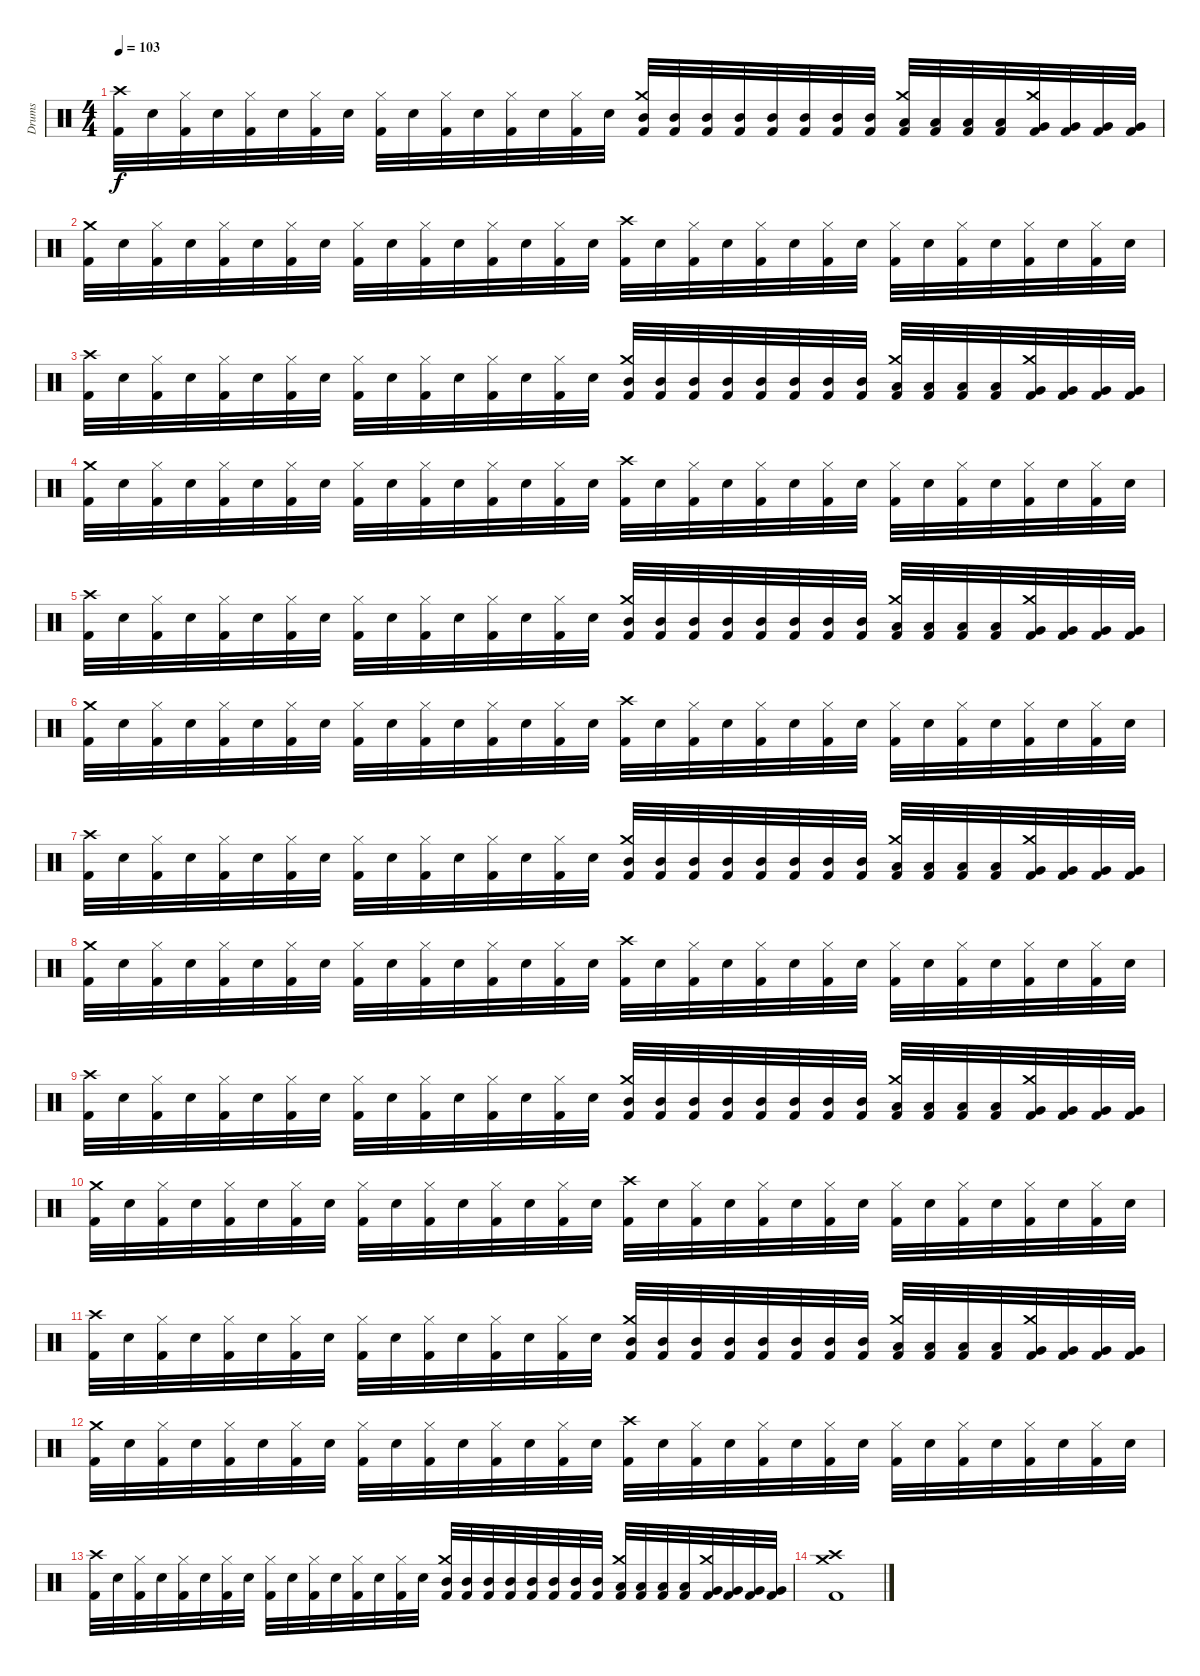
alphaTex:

\track ("Drums" "Drums") {instrument percussion}
\staff {score}
\articulation defaults
\ts (4 4)
\tempo 103
\clef neutral
\ks c
("Crash high (hit)" "Kick (hit) 2").32{dy f} "Electric Snare (hit)".32 ("Hi-Hat (closed)" "Kick (hit) 2").32 "Electric Snare (hit)".32 ("Hi-Hat (closed)" "Kick (hit) 2").32 "Electric Snare (hit)".32 ("Hi-Hat (closed)" "Kick (hit) 2").32 "Electric Snare (hit)".32 ("Hi-Hat (closed)" "Kick (hit) 2").32 "Electric Snare (hit)".32 ("Hi-Hat (closed)" "Kick (hit) 2").32 "Electric Snare (hit)".32 ("Hi-Hat (closed)" "Kick (hit) 2").32 "Electric Snare (hit)".32 ("Hi-Hat (closed)" "Kick (hit) 2").32 "Electric Snare (hit)".32 ("Crash medium (hit)" "Mid Tom (hit)" "Kick (hit) 2").32 ("Mid Tom (hit)" "Kick (hit) 2").32 ("Mid Tom (hit)" "Kick (hit) 2").32 ("Mid Tom (hit)" "Kick (hit) 2").32 ("Mid Tom (hit)" "Kick (hit) 2").32 ("Mid Tom (hit)" "Kick (hit) 2").32 ("Mid Tom (hit)" "Kick (hit) 2").32 ("Mid Tom (hit)" "Kick (hit) 2").32 ("Crash medium (hit)" "Low Tom (hit)" "Kick (hit) 2").32 ("Low Tom (hit)" "Kick (hit) 2").32 ("Low Tom (hit)" "Kick (hit) 2").32 ("Low Tom (hit)" "Kick (hit) 2").32 ("Crash medium (hit)" "Very Low Tom (hit)" "Kick (hit) 2").32 ("Very Low Tom (hit)" "Kick (hit) 2").32 ("Very Low Tom (hit)" "Kick (hit) 2").32 ("Very Low Tom (hit)" "Kick (hit) 2").32 |
("Crash medium (hit)" "Kick (hit) 2").32 "Electric Snare (hit)".32 ("Hi-Hat (closed)" "Kick (hit) 2").32 "Electric Snare (hit)".32 ("Hi-Hat (closed)" "Kick (hit) 2").32 "Electric Snare (hit)".32 ("Hi-Hat (closed)" "Kick (hit) 2").32 "Electric Snare (hit)".32 ("Hi-Hat (closed)" "Kick (hit) 2").32 "Electric Snare (hit)".32 ("Hi-Hat (closed)" "Kick (hit) 2").32 "Electric Snare (hit)".32 ("Hi-Hat (closed)" "Kick (hit) 2").32 "Electric Snare (hit)".32 ("Hi-Hat (closed)" "Kick (hit) 2").32 "Electric Snare (hit)".32 ("Crash high (hit)" "Kick (hit) 2").32 "Electric Snare (hit)".32 ("Hi-Hat (closed)" "Kick (hit) 2").32 "Electric Snare (hit)".32 ("Hi-Hat (closed)" "Kick (hit) 2").32 "Electric Snare (hit)".32 ("Hi-Hat (closed)" "Kick (hit) 2").32 "Electric Snare (hit)".32 ("Hi-Hat (closed)" "Kick (hit) 2").32 "Electric Snare (hit)".32 ("Hi-Hat (closed)" "Kick (hit) 2").32 "Electric Snare (hit)".32 ("Hi-Hat (closed)" "Kick (hit) 2").32 "Electric Snare (hit)".32 ("Hi-Hat (closed)" "Kick (hit) 2").32 "Electric Snare (hit)".32 |
("Crash high (hit)" "Kick (hit) 2").32 "Electric Snare (hit)".32 ("Hi-Hat (closed)" "Kick (hit) 2").32 "Electric Snare (hit)".32 ("Hi-Hat (closed)" "Kick (hit) 2").32 "Electric Snare (hit)".32 ("Hi-Hat (closed)" "Kick (hit) 2").32 "Electric Snare (hit)".32 ("Hi-Hat (closed)" "Kick (hit) 2").32 "Electric Snare (hit)".32 ("Hi-Hat (closed)" "Kick (hit) 2").32 "Electric Snare (hit)".32 ("Hi-Hat (closed)" "Kick (hit) 2").32 "Electric Snare (hit)".32 ("Hi-Hat (closed)" "Kick (hit) 2").32 "Electric Snare (hit)".32 ("Crash medium (hit)" "Mid Tom (hit)" "Kick (hit) 2").32 ("Mid Tom (hit)" "Kick (hit) 2").32 ("Mid Tom (hit)" "Kick (hit) 2").32 ("Mid Tom (hit)" "Kick (hit) 2").32 ("Mid Tom (hit)" "Kick (hit) 2").32 ("Mid Tom (hit)" "Kick (hit) 2").32 ("Mid Tom (hit)" "Kick (hit) 2").32 ("Mid Tom (hit)" "Kick (hit) 2").32 ("Crash medium (hit)" "Low Tom (hit)" "Kick (hit) 2").32 ("Low Tom (hit)" "Kick (hit) 2").32 ("Low Tom (hit)" "Kick (hit) 2").32 ("Low Tom (hit)" "Kick (hit) 2").32 ("Crash medium (hit)" "Very Low Tom (hit)" "Kick (hit) 2").32 ("Very Low Tom (hit)" "Kick (hit) 2").32 ("Very Low Tom (hit)" "Kick (hit) 2").32 ("Very Low Tom (hit)" "Kick (hit) 2").32 |
("Crash medium (hit)" "Kick (hit) 2").32 "Electric Snare (hit)".32 ("Hi-Hat (closed)" "Kick (hit) 2").32 "Electric Snare (hit)".32 ("Hi-Hat (closed)" "Kick (hit) 2").32 "Electric Snare (hit)".32 ("Hi-Hat (closed)" "Kick (hit) 2").32 "Electric Snare (hit)".32 ("Hi-Hat (closed)" "Kick (hit) 2").32 "Electric Snare (hit)".32 ("Hi-Hat (closed)" "Kick (hit) 2").32 "Electric Snare (hit)".32 ("Hi-Hat (closed)" "Kick (hit) 2").32 "Electric Snare (hit)".32 ("Hi-Hat (closed)" "Kick (hit) 2").32 "Electric Snare (hit)".32 ("Crash high (hit)" "Kick (hit) 2").32 "Electric Snare (hit)".32 ("Hi-Hat (closed)" "Kick (hit) 2").32 "Electric Snare (hit)".32 ("Hi-Hat (closed)" "Kick (hit) 2").32 "Electric Snare (hit)".32 ("Hi-Hat (closed)" "Kick (hit) 2").32 "Electric Snare (hit)".32 ("Hi-Hat (closed)" "Kick (hit) 2").32 "Electric Snare (hit)".32 ("Hi-Hat (closed)" "Kick (hit) 2").32 "Electric Snare (hit)".32 ("Hi-Hat (closed)" "Kick (hit) 2").32 "Electric Snare (hit)".32 ("Hi-Hat (closed)" "Kick (hit) 2").32 "Electric Snare (hit)".32 |
("Crash high (hit)" "Kick (hit) 2").32 "Electric Snare (hit)".32 ("Hi-Hat (closed)" "Kick (hit) 2").32 "Electric Snare (hit)".32 ("Hi-Hat (closed)" "Kick (hit) 2").32 "Electric Snare (hit)".32 ("Hi-Hat (closed)" "Kick (hit) 2").32 "Electric Snare (hit)".32 ("Hi-Hat (closed)" "Kick (hit) 2").32 "Electric Snare (hit)".32 ("Hi-Hat (closed)" "Kick (hit) 2").32 "Electric Snare (hit)".32 ("Hi-Hat (closed)" "Kick (hit) 2").32 "Electric Snare (hit)".32 ("Hi-Hat (closed)" "Kick (hit) 2").32 "Electric Snare (hit)".32 ("Crash medium (hit)" "Mid Tom (hit)" "Kick (hit) 2").32 ("Mid Tom (hit)" "Kick (hit) 2").32 ("Mid Tom (hit)" "Kick (hit) 2").32 ("Mid Tom (hit)" "Kick (hit) 2").32 ("Mid Tom (hit)" "Kick (hit) 2").32 ("Mid Tom (hit)" "Kick (hit) 2").32 ("Mid Tom (hit)" "Kick (hit) 2").32 ("Mid Tom (hit)" "Kick (hit) 2").32 ("Crash medium (hit)" "Low Tom (hit)" "Kick (hit) 2").32 ("Low Tom (hit)" "Kick (hit) 2").32 ("Low Tom (hit)" "Kick (hit) 2").32 ("Low Tom (hit)" "Kick (hit) 2").32 ("Crash medium (hit)" "Very Low Tom (hit)" "Kick (hit) 2").32 ("Very Low Tom (hit)" "Kick (hit) 2").32 ("Very Low Tom (hit)" "Kick (hit) 2").32 ("Very Low Tom (hit)" "Kick (hit) 2").32 |
("Crash medium (hit)" "Kick (hit) 2").32 "Electric Snare (hit)".32 ("Hi-Hat (closed)" "Kick (hit) 2").32 "Electric Snare (hit)".32 ("Hi-Hat (closed)" "Kick (hit) 2").32 "Electric Snare (hit)".32 ("Hi-Hat (closed)" "Kick (hit) 2").32 "Electric Snare (hit)".32 ("Hi-Hat (closed)" "Kick (hit) 2").32 "Electric Snare (hit)".32 ("Hi-Hat (closed)" "Kick (hit) 2").32 "Electric Snare (hit)".32 ("Hi-Hat (closed)" "Kick (hit) 2").32 "Electric Snare (hit)".32 ("Hi-Hat (closed)" "Kick (hit) 2").32 "Electric Snare (hit)".32 ("Crash high (hit)" "Kick (hit) 2").32 "Electric Snare (hit)".32 ("Hi-Hat (closed)" "Kick (hit) 2").32 "Electric Snare (hit)".32 ("Hi-Hat (closed)" "Kick (hit) 2").32 "Electric Snare (hit)".32 ("Hi-Hat (closed)" "Kick (hit) 2").32 "Electric Snare (hit)".32 ("Hi-Hat (closed)" "Kick (hit) 2").32 "Electric Snare (hit)".32 ("Hi-Hat (closed)" "Kick (hit) 2").32 "Electric Snare (hit)".32 ("Hi-Hat (closed)" "Kick (hit) 2").32 "Electric Snare (hit)".32 ("Hi-Hat (closed)" "Kick (hit) 2").32 "Electric Snare (hit)".32 |
("Crash high (hit)" "Kick (hit) 2").32 "Electric Snare (hit)".32 ("Hi-Hat (closed)" "Kick (hit) 2").32 "Electric Snare (hit)".32 ("Hi-Hat (closed)" "Kick (hit) 2").32 "Electric Snare (hit)".32 ("Hi-Hat (closed)" "Kick (hit) 2").32 "Electric Snare (hit)".32 ("Hi-Hat (closed)" "Kick (hit) 2").32 "Electric Snare (hit)".32 ("Hi-Hat (closed)" "Kick (hit) 2").32 "Electric Snare (hit)".32 ("Hi-Hat (closed)" "Kick (hit) 2").32 "Electric Snare (hit)".32 ("Hi-Hat (closed)" "Kick (hit) 2").32 "Electric Snare (hit)".32 ("Crash medium (hit)" "Mid Tom (hit)" "Kick (hit) 2").32 ("Mid Tom (hit)" "Kick (hit) 2").32 ("Mid Tom (hit)" "Kick (hit) 2").32 ("Mid Tom (hit)" "Kick (hit) 2").32 ("Mid Tom (hit)" "Kick (hit) 2").32 ("Mid Tom (hit)" "Kick (hit) 2").32 ("Mid Tom (hit)" "Kick (hit) 2").32 ("Mid Tom (hit)" "Kick (hit) 2").32 ("Crash medium (hit)" "Low Tom (hit)" "Kick (hit) 2").32 ("Low Tom (hit)" "Kick (hit) 2").32 ("Low Tom (hit)" "Kick (hit) 2").32 ("Low Tom (hit)" "Kick (hit) 2").32 ("Crash medium (hit)" "Very Low Tom (hit)" "Kick (hit) 2").32 ("Very Low Tom (hit)" "Kick (hit) 2").32 ("Very Low Tom (hit)" "Kick (hit) 2").32 ("Very Low Tom (hit)" "Kick (hit) 2").32 |
("Crash medium (hit)" "Kick (hit) 2").32 "Electric Snare (hit)".32 ("Hi-Hat (closed)" "Kick (hit) 2").32 "Electric Snare (hit)".32 ("Hi-Hat (closed)" "Kick (hit) 2").32 "Electric Snare (hit)".32 ("Hi-Hat (closed)" "Kick (hit) 2").32 "Electric Snare (hit)".32 ("Hi-Hat (closed)" "Kick (hit) 2").32 "Electric Snare (hit)".32 ("Hi-Hat (closed)" "Kick (hit) 2").32 "Electric Snare (hit)".32 ("Hi-Hat (closed)" "Kick (hit) 2").32 "Electric Snare (hit)".32 ("Hi-Hat (closed)" "Kick (hit) 2").32 "Electric Snare (hit)".32 ("Crash high (hit)" "Kick (hit) 2").32 "Electric Snare (hit)".32 ("Hi-Hat (closed)" "Kick (hit) 2").32 "Electric Snare (hit)".32 ("Hi-Hat (closed)" "Kick (hit) 2").32 "Electric Snare (hit)".32 ("Hi-Hat (closed)" "Kick (hit) 2").32 "Electric Snare (hit)".32 ("Hi-Hat (closed)" "Kick (hit) 2").32 "Electric Snare (hit)".32 ("Hi-Hat (closed)" "Kick (hit) 2").32 "Electric Snare (hit)".32 ("Hi-Hat (closed)" "Kick (hit) 2").32 "Electric Snare (hit)".32 ("Hi-Hat (closed)" "Kick (hit) 2").32 "Electric Snare (hit)".32 |
("Crash high (hit)" "Kick (hit) 2").32 "Electric Snare (hit)".32 ("Hi-Hat (closed)" "Kick (hit) 2").32 "Electric Snare (hit)".32 ("Hi-Hat (closed)" "Kick (hit) 2").32 "Electric Snare (hit)".32 ("Hi-Hat (closed)" "Kick (hit) 2").32 "Electric Snare (hit)".32 ("Hi-Hat (closed)" "Kick (hit) 2").32 "Electric Snare (hit)".32 ("Hi-Hat (closed)" "Kick (hit) 2").32 "Electric Snare (hit)".32 ("Hi-Hat (closed)" "Kick (hit) 2").32 "Electric Snare (hit)".32 ("Hi-Hat (closed)" "Kick (hit) 2").32 "Electric Snare (hit)".32 ("Crash medium (hit)" "Mid Tom (hit)" "Kick (hit) 2").32 ("Mid Tom (hit)" "Kick (hit) 2").32 ("Mid Tom (hit)" "Kick (hit) 2").32 ("Mid Tom (hit)" "Kick (hit) 2").32 ("Mid Tom (hit)" "Kick (hit) 2").32 ("Mid Tom (hit)" "Kick (hit) 2").32 ("Mid Tom (hit)" "Kick (hit) 2").32 ("Mid Tom (hit)" "Kick (hit) 2").32 ("Crash medium (hit)" "Low Tom (hit)" "Kick (hit) 2").32 ("Low Tom (hit)" "Kick (hit) 2").32 ("Low Tom (hit)" "Kick (hit) 2").32 ("Low Tom (hit)" "Kick (hit) 2").32 ("Crash medium (hit)" "Very Low Tom (hit)" "Kick (hit) 2").32 ("Very Low Tom (hit)" "Kick (hit) 2").32 ("Very Low Tom (hit)" "Kick (hit) 2").32 ("Very Low Tom (hit)" "Kick (hit) 2").32 |
("Crash medium (hit)" "Kick (hit) 2").32 "Electric Snare (hit)".32 ("Hi-Hat (closed)" "Kick (hit) 2").32 "Electric Snare (hit)".32 ("Hi-Hat (closed)" "Kick (hit) 2").32 "Electric Snare (hit)".32 ("Hi-Hat (closed)" "Kick (hit) 2").32 "Electric Snare (hit)".32 ("Hi-Hat (closed)" "Kick (hit) 2").32 "Electric Snare (hit)".32 ("Hi-Hat (closed)" "Kick (hit) 2").32 "Electric Snare (hit)".32 ("Hi-Hat (closed)" "Kick (hit) 2").32 "Electric Snare (hit)".32 ("Hi-Hat (closed)" "Kick (hit) 2").32 "Electric Snare (hit)".32 ("Crash high (hit)" "Kick (hit) 2").32 "Electric Snare (hit)".32 ("Hi-Hat (closed)" "Kick (hit) 2").32 "Electric Snare (hit)".32 ("Hi-Hat (closed)" "Kick (hit) 2").32 "Electric Snare (hit)".32 ("Hi-Hat (closed)" "Kick (hit) 2").32 "Electric Snare (hit)".32 ("Hi-Hat (closed)" "Kick (hit) 2").32 "Electric Snare (hit)".32 ("Hi-Hat (closed)" "Kick (hit) 2").32 "Electric Snare (hit)".32 ("Hi-Hat (closed)" "Kick (hit) 2").32 "Electric Snare (hit)".32 ("Hi-Hat (closed)" "Kick (hit) 2").32 "Electric Snare (hit)".32 |
("Crash high (hit)" "Kick (hit) 2").32 "Electric Snare (hit)".32 ("Hi-Hat (closed)" "Kick (hit) 2").32 "Electric Snare (hit)".32 ("Hi-Hat (closed)" "Kick (hit) 2").32 "Electric Snare (hit)".32 ("Hi-Hat (closed)" "Kick (hit) 2").32 "Electric Snare (hit)".32 ("Hi-Hat (closed)" "Kick (hit) 2").32 "Electric Snare (hit)".32 ("Hi-Hat (closed)" "Kick (hit) 2").32 "Electric Snare (hit)".32 ("Hi-Hat (closed)" "Kick (hit) 2").32 "Electric Snare (hit)".32 ("Hi-Hat (closed)" "Kick (hit) 2").32 "Electric Snare (hit)".32 ("Crash medium (hit)" "Mid Tom (hit)" "Kick (hit) 2").32 ("Mid Tom (hit)" "Kick (hit) 2").32 ("Mid Tom (hit)" "Kick (hit) 2").32 ("Mid Tom (hit)" "Kick (hit) 2").32 ("Mid Tom (hit)" "Kick (hit) 2").32 ("Mid Tom (hit)" "Kick (hit) 2").32 ("Mid Tom (hit)" "Kick (hit) 2").32 ("Mid Tom (hit)" "Kick (hit) 2").32 ("Crash medium (hit)" "Low Tom (hit)" "Kick (hit) 2").32 ("Low Tom (hit)" "Kick (hit) 2").32 ("Low Tom (hit)" "Kick (hit) 2").32 ("Low Tom (hit)" "Kick (hit) 2").32 ("Crash medium (hit)" "Very Low Tom (hit)" "Kick (hit) 2").32 ("Very Low Tom (hit)" "Kick (hit) 2").32 ("Very Low Tom (hit)" "Kick (hit) 2").32 ("Very Low Tom (hit)" "Kick (hit) 2").32 |
("Crash medium (hit)" "Kick (hit) 2").32 "Electric Snare (hit)".32 ("Hi-Hat (closed)" "Kick (hit) 2").32 "Electric Snare (hit)".32 ("Hi-Hat (closed)" "Kick (hit) 2").32 "Electric Snare (hit)".32 ("Hi-Hat (closed)" "Kick (hit) 2").32 "Electric Snare (hit)".32 ("Hi-Hat (closed)" "Kick (hit) 2").32 "Electric Snare (hit)".32 ("Hi-Hat (closed)" "Kick (hit) 2").32 "Electric Snare (hit)".32 ("Hi-Hat (closed)" "Kick (hit) 2").32 "Electric Snare (hit)".32 ("Hi-Hat (closed)" "Kick (hit) 2").32 "Electric Snare (hit)".32 ("Crash high (hit)" "Kick (hit) 2").32 "Electric Snare (hit)".32 ("Hi-Hat (closed)" "Kick (hit) 2").32 "Electric Snare (hit)".32 ("Hi-Hat (closed)" "Kick (hit) 2").32 "Electric Snare (hit)".32 ("Hi-Hat (closed)" "Kick (hit) 2").32 "Electric Snare (hit)".32 ("Hi-Hat (closed)" "Kick (hit) 2").32 "Electric Snare (hit)".32 ("Hi-Hat (closed)" "Kick (hit) 2").32 "Electric Snare (hit)".32 ("Hi-Hat (closed)" "Kick (hit) 2").32 "Electric Snare (hit)".32 ("Hi-Hat (closed)" "Kick (hit) 2").32 "Electric Snare (hit)".32 |
("Crash high (hit)" "Kick (hit) 2").32 "Electric Snare (hit)".32 ("Hi-Hat (closed)" "Kick (hit) 2").32 "Electric Snare (hit)".32 ("Hi-Hat (closed)" "Kick (hit) 2").32 "Electric Snare (hit)".32 ("Hi-Hat (closed)" "Kick (hit) 2").32 "Electric Snare (hit)".32 ("Hi-Hat (closed)" "Kick (hit) 2").32 "Electric Snare (hit)".32 ("Hi-Hat (closed)" "Kick (hit) 2").32 "Electric Snare (hit)".32 ("Hi-Hat (closed)" "Kick (hit) 2").32 "Electric Snare (hit)".32 ("Hi-Hat (closed)" "Kick (hit) 2").32 "Electric Snare (hit)".32 ("Crash medium (hit)" "Mid Tom (hit)" "Kick (hit) 2").32 ("Mid Tom (hit)" "Kick (hit) 2").32 ("Mid Tom (hit)" "Kick (hit) 2").32 ("Mid Tom (hit)" "Kick (hit) 2").32 ("Mid Tom (hit)" "Kick (hit) 2").32 ("Mid Tom (hit)" "Kick (hit) 2").32 ("Mid Tom (hit)" "Kick (hit) 2").32 ("Mid Tom (hit)" "Kick (hit) 2").32 ("Crash medium (hit)" "Low Tom (hit)" "Kick (hit) 2").32 ("Low Tom (hit)" "Kick (hit) 2").32 ("Low Tom (hit)" "Kick (hit) 2").32 ("Low Tom (hit)" "Kick (hit) 2").32 ("Crash medium (hit)" "Very Low Tom (hit)" "Kick (hit) 2").32 ("Very Low Tom (hit)" "Kick (hit) 2").32 ("Very Low Tom (hit)" "Kick (hit) 2").32 ("Very Low Tom (hit)" "Kick (hit) 2").32 |
("Crash medium (hit)" "Crash high (hit)" "Kick (hit) 2").1
